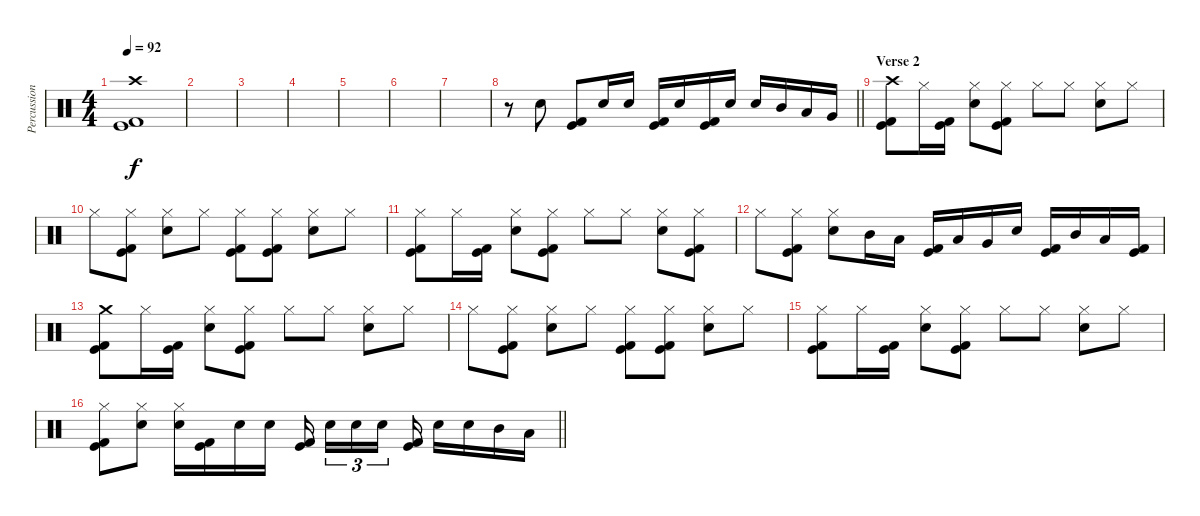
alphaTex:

\track ("Percussion" "Percussion") {instrument percussion}
\staff {score}
\articulation defaults
\ts (4 4)
\section ("" "")
\tempo 92
\clef neutral
\ks c
("Crash high (hit)" "Kick (hit)" "Kick (hit) 2").1{dy f} |
|
|
|
|
|
|
\barLineRight lightlight
r.8 "Electric Snare (hit)".8 ("Kick (hit)" "Kick (hit) 2").8 "Electric Snare (hit)".16 "Electric Snare (hit)".16 ("Kick (hit)" "Kick (hit) 2").16 "Electric Snare (hit)".16 ("Kick (hit)" "Kick (hit) 2").16 "Electric Snare (hit)".16 "Electric Snare (hit)".16 "Mid Tom (hit)".16 "Low Tom (hit)".16 "Very Low Tom (hit)".16 |
\section ("" "Verse 2")
("Crash high (hit)" "Kick (hit)" "Kick (hit) 2").8 "Hi-Hat (closed)".16 ("Kick (hit)" "Kick (hit) 2").16 ("Hi-Hat (closed)" "Electric Snare (hit)").8 ("Hi-Hat (closed)" "Kick (hit)" "Kick (hit) 2").8 "Hi-Hat (closed)".8 "Hi-Hat (closed)".8 ("Hi-Hat (closed)" "Electric Snare (hit)").8 "Hi-Hat (closed)".8 |
"Hi-Hat (closed)".8 ("Hi-Hat (closed)" "Kick (hit)" "Kick (hit) 2").8 ("Hi-Hat (closed)" "Electric Snare (hit)").8 "Hi-Hat (closed)".8 ("Hi-Hat (closed)" "Kick (hit)" "Kick (hit) 2").8 ("Hi-Hat (closed)" "Kick (hit)" "Kick (hit) 2").8 ("Hi-Hat (closed)" "Electric Snare (hit)").8 "Hi-Hat (closed)".8 |
("Hi-Hat (closed)" "Kick (hit)" "Kick (hit) 2").8 "Hi-Hat (closed)".16 ("Kick (hit)" "Kick (hit) 2").16 ("Hi-Hat (closed)" "Electric Snare (hit)").8 ("Hi-Hat (closed)" "Kick (hit)" "Kick (hit) 2").8 "Hi-Hat (closed)".8 "Hi-Hat (closed)".8 ("Hi-Hat (closed)" "Electric Snare (hit)").8 ("Hi-Hat (closed)" "Kick (hit)" "Kick (hit) 2").8 |
"Hi-Hat (closed)".8 ("Hi-Hat (closed)" "Kick (hit)" "Kick (hit) 2").8 ("Hi-Hat (closed)" "Electric Snare (hit)").8 "Mid Tom (hit)".16 "Low Tom (hit)".16 ("Kick (hit)" "Kick (hit) 2").16 "Low Tom (hit)".16 "Very Low Tom (hit)".16 "Electric Snare (hit)".16 ("Kick (hit)" "Kick (hit) 2").16 "Mid Tom (hit)".16 "Low Tom (hit)".16 ("Kick (hit)" "Kick (hit) 2").16 |
("Crash medium (hit)" "Kick (hit)" "Kick (hit) 2").8 "Hi-Hat (closed)".16 ("Kick (hit)" "Kick (hit) 2").16 ("Hi-Hat (closed)" "Electric Snare (hit)").8 ("Hi-Hat (closed)" "Kick (hit)" "Kick (hit) 2").8 "Hi-Hat (closed)".8 "Hi-Hat (closed)".8 ("Hi-Hat (closed)" "Electric Snare (hit)").8 "Hi-Hat (closed)".8 |
"Hi-Hat (closed)".8 ("Hi-Hat (closed)" "Kick (hit)" "Kick (hit) 2").8 ("Hi-Hat (closed)" "Electric Snare (hit)").8 "Hi-Hat (closed)".8 ("Hi-Hat (closed)" "Kick (hit)" "Kick (hit) 2").8 ("Hi-Hat (closed)" "Kick (hit)" "Kick (hit) 2").8 ("Hi-Hat (closed)" "Electric Snare (hit)").8 "Hi-Hat (closed)".8 |
("Hi-Hat (closed)" "Kick (hit)" "Kick (hit) 2").8 "Hi-Hat (closed)".16 ("Kick (hit)" "Kick (hit) 2").16 ("Hi-Hat (closed)" "Electric Snare (hit)").8 ("Hi-Hat (closed)" "Kick (hit)" "Kick (hit) 2").8 "Hi-Hat (closed)".8 "Hi-Hat (closed)".8 ("Hi-Hat (closed)" "Electric Snare (hit)").8 "Hi-Hat (closed)".8 |
\barLineRight lightlight
("Hi-Hat (closed)" "Kick (hit)" "Kick (hit) 2").8 ("Hi-Hat (closed)" "Electric Snare (hit)").8 ("Hi-Hat (closed)" "Electric Snare (hit)").16 ("Kick (hit)" "Kick (hit) 2").16 "Electric Snare (hit)".16 "Electric Snare (hit)".16 ("Kick (hit)" "Kick (hit) 2").16{beam splitsecondary} "Electric Snare (hit)".16{tu (3 2)} "Electric Snare (hit)".16{tu (3 2)} "Electric Snare (hit)".16{tu (3 2) beam splitsecondary} ("Kick (hit)" "Kick (hit) 2").16 "Electric Snare (hit)".16 "Electric Snare (hit)".16 "Mid Tom (hit)".16 "Low Tom (hit)".16
